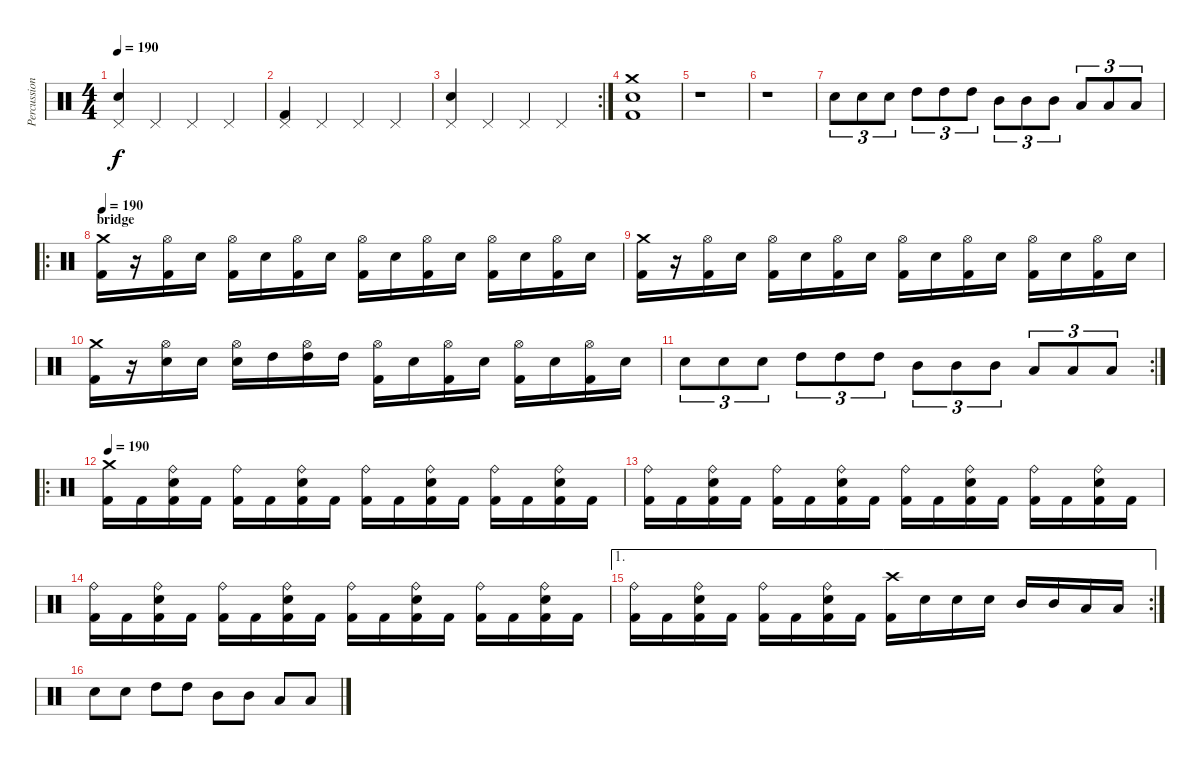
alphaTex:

\track ("Percussions" "Percussion") {instrument percussion}
\staff {score}
\articulation defaults
\ts (4 4)
\tempo 190
\clef neutral
\ks c
("Pedal Hi-Hat (hit)" "Electric Snare (hit)").4{dy f} "Pedal Hi-Hat (hit)".4 "Pedal Hi-Hat (hit)".4 "Pedal Hi-Hat (hit)".4 |
("Pedal Hi-Hat (hit)" "Kick (hit) 2").4 "Pedal Hi-Hat (hit)".4 "Pedal Hi-Hat (hit)".4 "Pedal Hi-Hat (hit)".4 |
\rc 2
("Pedal Hi-Hat (hit)" "Electric Snare (hit)").4 "Pedal Hi-Hat (hit)".4 "Pedal Hi-Hat (hit)".4 "Pedal Hi-Hat (hit)".4 |
("Crash medium (hit)" "Electric Snare (hit)" "Kick (hit) 2").1 |
r.1 |
r.1 |
"Electric Snare (hit)".8{tu (3 2)} "Electric Snare (hit)".8{tu (3 2)} "Electric Snare (hit)".8{tu (3 2)} "High Tom (hit)".8{tu (3 2)} "High Tom (hit)".8{tu (3 2)} "High Tom (hit)".8{tu (3 2)} "Mid Tom (hit)".8{tu (3 2)} "Mid Tom (hit)".8{tu (3 2)} "Mid Tom (hit)".8{tu (3 2)} "Low Tom (hit)".8{tu (3 2)} "Low Tom (hit)".8{tu (3 2)} "Low Tom (hit)".8{tu (3 2)} |
\ro
\section ("" "bridge")
\tempo 190
("Crash medium (hit)" "Kick (hit) 2").16 r.16 ("Hi-Hat (open)" "Kick (hit) 2").16 "Electric Snare (hit)".16 ("Hi-Hat (open)" "Kick (hit) 2").16 "Electric Snare (hit)".16 ("Hi-Hat (open)" "Kick (hit) 2").16 "Electric Snare (hit)".16 ("Hi-Hat (open)" "Kick (hit) 2").16 "Electric Snare (hit)".16 ("Hi-Hat (open)" "Kick (hit) 2").16 "Electric Snare (hit)".16 ("Hi-Hat (open)" "Kick (hit) 2").16 "Electric Snare (hit)".16 ("Hi-Hat (open)" "Kick (hit) 2").16 "Electric Snare (hit)".16 |
("Crash medium (hit)" "Kick (hit) 2").16 r.16 ("Hi-Hat (open)" "Kick (hit) 2").16 "Electric Snare (hit)".16 ("Hi-Hat (open)" "Kick (hit) 2").16 "Electric Snare (hit)".16 ("Hi-Hat (open)" "Kick (hit) 2").16 "Electric Snare (hit)".16 ("Hi-Hat (open)" "Kick (hit) 2").16 "Electric Snare (hit)".16 ("Hi-Hat (open)" "Kick (hit) 2").16 "Electric Snare (hit)".16 ("Hi-Hat (open)" "Kick (hit) 2").16 "Electric Snare (hit)".16 ("Hi-Hat (open)" "Kick (hit) 2").16 "Electric Snare (hit)".16 |
("Crash medium (hit)" "Kick (hit) 2").16 r.16 ("Hi-Hat (open)" "Electric Snare (hit)").16 "Electric Snare (hit)".16 ("Hi-Hat (open)" "Electric Snare (hit)").16 "High Tom (hit)".16 ("Hi-Hat (open)" "High Tom (hit)").16 "High Tom (hit)".16 ("Hi-Hat (open)" "Kick (hit) 2").16 "Electric Snare (hit)".16 ("Hi-Hat (open)" "Kick (hit) 2").16 "Electric Snare (hit)".16 ("Hi-Hat (open)" "Kick (hit) 2").16 "Electric Snare (hit)".16 ("Hi-Hat (open)" "Kick (hit) 2").16 "Electric Snare (hit)".16 |
\rc 2 "Electric Snare (hit)".8{tu (3 2)} "Electric Snare (hit)".8{tu (3 2)} "Electric Snare (hit)".8{tu (3 2)} "High Tom (hit)".8{tu (3 2)} "High Tom (hit)".8{tu (3 2)} "High Tom (hit)".8{tu (3 2)} "Mid Tom (hit)".8{tu (3 2)} "Mid Tom (hit)".8{tu (3 2)} "Mid Tom (hit)".8{tu (3 2)} "Low Tom (hit)".8{tu (3 2)} "Low Tom (hit)".8{tu (3 2)} "Low Tom (hit)".8{tu (3 2)}
|
\ro
\tempo 190
("Crash medium (hit)" "Kick (hit) 2").16 "Kick (hit) 2".16 ("Ride (bell)" "Electric Snare (hit)" "Kick (hit) 2").16 "Kick (hit) 2".16 ("Ride (bell)" "Kick (hit) 2").16 "Kick (hit) 2".16 ("Ride (bell)" "Electric Snare (hit)" "Kick (hit) 2").16 "Kick (hit) 2".16 ("Ride (bell)" "Kick (hit) 2").16 "Kick (hit) 2".16 ("Ride (bell)" "Electric Snare (hit)" "Kick (hit) 2").16 "Kick (hit) 2".16 ("Ride (bell)" "Kick (hit) 2").16 "Kick (hit) 2".16 ("Ride (bell)" "Electric Snare (hit)" "Kick (hit) 2").16 "Kick (hit) 2".16 |
("Ride (bell)" "Kick (hit) 2").16 "Kick (hit) 2".16 ("Ride (bell)" "Electric Snare (hit)" "Kick (hit) 2").16 "Kick (hit) 2".16 ("Ride (bell)" "Kick (hit) 2").16 "Kick (hit) 2".16 ("Ride (bell)" "Electric Snare (hit)" "Kick (hit) 2").16 "Kick (hit) 2".16 ("Ride (bell)" "Kick (hit) 2").16 "Kick (hit) 2".16 ("Ride (bell)" "Electric Snare (hit)" "Kick (hit) 2").16 "Kick (hit) 2".16 ("Ride (bell)" "Kick (hit) 2").16 "Kick (hit) 2".16 ("Ride (bell)" "Electric Snare (hit)" "Kick (hit) 2").16 "Kick (hit) 2".16 |
("Ride (bell)" "Kick (hit) 2").16 "Kick (hit) 2".16 ("Ride (bell)" "Electric Snare (hit)" "Kick (hit) 2").16 "Kick (hit) 2".16 ("Ride (bell)" "Kick (hit) 2").16 "Kick (hit) 2".16 ("Ride (bell)" "Electric Snare (hit)" "Kick (hit) 2").16 "Kick (hit) 2".16 ("Ride (bell)" "Kick (hit) 2").16 "Kick (hit) 2".16 ("Ride (bell)" "Electric Snare (hit)" "Kick (hit) 2").16 "Kick (hit) 2".16 ("Ride (bell)" "Kick (hit) 2").16 "Kick (hit) 2".16 ("Ride (bell)" "Electric Snare (hit)" "Kick (hit) 2").16 "Kick (hit) 2".16 |
\ae 1
\rc 2
("Ride (bell)" "Kick (hit) 2").16 "Kick (hit) 2".16 ("Ride (bell)" "Electric Snare (hit)" "Kick (hit) 2").16 "Kick (hit) 2".16 ("Ride (bell)" "Kick (hit) 2").16 "Kick (hit) 2".16 ("Ride (bell)" "Electric Snare (hit)" "Kick (hit) 2").16 "Kick (hit) 2".16 ("Crash high (hit)" "Kick (hit) 2").16 "Electric Snare (hit)".16 "Electric Snare (hit)".16 "Electric Snare (hit)".16 "Mid Tom (hit)".16 "Mid Tom (hit)".16 "Low Tom (hit)".16 "Low Tom (hit)".16 |
"Electric Snare (hit)".8 "Electric Snare (hit)".8 "High Tom (hit)".8 "High Tom (hit)".8 "Mid Tom (hit)".8 "Mid Tom (hit)".8 "Low Tom (hit)".8 "Low Tom (hit)".8
